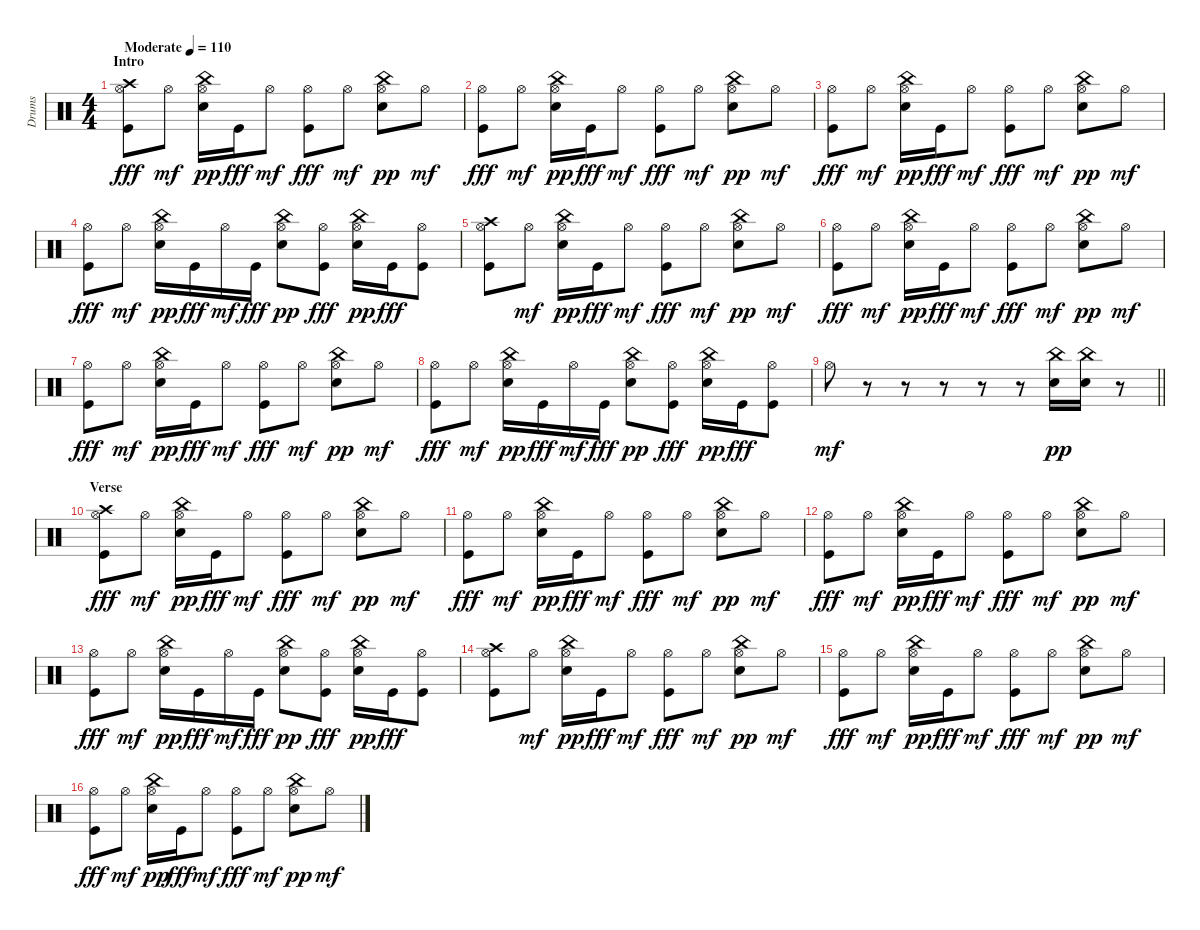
\track ("Drums" "Drums") {instrument percussion}
\staff {score}
\articulation defaults
\ts (4 4)
\section ("" "Intro")
\tempo (110 "Moderate")
\clef neutral
\ks c
("Crash high (hit)" "Hi-Hat (open)" "Kick (hit)").8{dy fff} "Hi-Hat (open)".8{dy mf} ("Hi-Hat (open)" "China (hit)" "Electric Snare (hit)").16{dy pp} "Kick (hit)".16{dy fff} "Hi-Hat (open)".8{dy mf} ("Hi-Hat (open)" "Kick (hit)").8{dy fff} "Hi-Hat (open)".8{dy mf} ("Hi-Hat (open)" "China (hit)" "Electric Snare (hit)").8{dy pp} "Hi-Hat (open)".8{dy mf} |
("Hi-Hat (open)" "Kick (hit)").8{dy fff} "Hi-Hat (open)".8{dy mf} ("Hi-Hat (open)" "China (hit)" "Electric Snare (hit)").16{dy pp} "Kick (hit)".16{dy fff} "Hi-Hat (open)".8{dy mf} ("Hi-Hat (open)" "Kick (hit)").8{dy fff} "Hi-Hat (open)".8{dy mf} ("Hi-Hat (open)" "China (hit)" "Electric Snare (hit)").8{dy pp} "Hi-Hat (open)".8{dy mf} |
("Hi-Hat (open)" "Kick (hit)").8{dy fff} "Hi-Hat (open)".8{dy mf} ("Hi-Hat (open)" "China (hit)" "Electric Snare (hit)").16{dy pp} "Kick (hit)".16{dy fff} "Hi-Hat (open)".8{dy mf} ("Hi-Hat (open)" "Kick (hit)").8{dy fff} "Hi-Hat (open)".8{dy mf} ("Hi-Hat (open)" "China (hit)" "Electric Snare (hit)").8{dy pp} "Hi-Hat (open)".8{dy mf} |
("Hi-Hat (open)" "Kick (hit)").8{dy fff} "Hi-Hat (open)".8{dy mf} ("Hi-Hat (open)" "China (hit)" "Electric Snare (hit)").16{dy pp} "Kick (hit)".16{dy fff} "Hi-Hat (open)".16{dy mf} "Kick (hit)".16{dy fff} ("Hi-Hat (open)" "China (hit)" "Electric Snare (hit)").8{dy pp} ("Hi-Hat (open)" "Kick (hit)").8{dy fff} ("Hi-Hat (open)" "China (hit)" "Electric Snare (hit)").16{dy pp} "Kick (hit)".16{dy fff} ("Hi-Hat (open)" "Kick (hit)").8 |
("Crash high (hit)" "Hi-Hat (open)" "Kick (hit)").8 "Hi-Hat (open)".8{dy mf} ("Hi-Hat (open)" "China (hit)" "Electric Snare (hit)").16{dy pp} "Kick (hit)".16{dy fff} "Hi-Hat (open)".8{dy mf} ("Hi-Hat (open)" "Kick (hit)").8{dy fff} "Hi-Hat (open)".8{dy mf} ("Hi-Hat (open)" "China (hit)" "Electric Snare (hit)").8{dy pp} "Hi-Hat (open)".8{dy mf} |
("Hi-Hat (open)" "Kick (hit)").8{dy fff} "Hi-Hat (open)".8{dy mf} ("Hi-Hat (open)" "China (hit)" "Electric Snare (hit)").16{dy pp} "Kick (hit)".16{dy fff} "Hi-Hat (open)".8{dy mf} ("Hi-Hat (open)" "Kick (hit)").8{dy fff} "Hi-Hat (open)".8{dy mf} ("Hi-Hat (open)" "China (hit)" "Electric Snare (hit)").8{dy pp} "Hi-Hat (open)".8{dy mf} |
("Hi-Hat (open)" "Kick (hit)").8{dy fff} "Hi-Hat (open)".8{dy mf} ("Hi-Hat (open)" "China (hit)" "Electric Snare (hit)").16{dy pp} "Kick (hit)".16{dy fff} "Hi-Hat (open)".8{dy mf} ("Hi-Hat (open)" "Kick (hit)").8{dy fff} "Hi-Hat (open)".8{dy mf} ("Hi-Hat (open)" "China (hit)" "Electric Snare (hit)").8{dy pp} "Hi-Hat (open)".8{dy mf} |
("Hi-Hat (open)" "Kick (hit)").8{dy fff} "Hi-Hat (open)".8{dy mf} ("Hi-Hat (open)" "China (hit)" "Electric Snare (hit)").16{dy pp} "Kick (hit)".16{dy fff} "Hi-Hat (open)".16{dy mf} "Kick (hit)".16{dy fff} ("Hi-Hat (open)" "China (hit)" "Electric Snare (hit)").8{dy pp} ("Hi-Hat (open)" "Kick (hit)").8{dy fff} ("Hi-Hat (open)" "China (hit)" "Electric Snare (hit)").16{dy pp} "Kick (hit)".16{dy fff} ("Hi-Hat (open)" "Kick (hit)").8 |
\barLineRight lightlight "Hi-Hat (open)".8{dy mf}
r.8 r.8 r.8 r.8 r.8 ("China (hit)" "Electric Snare (hit)").16{dy pp} ("China (hit)" "Electric Snare (hit)").16 r.8 |
\section ("" "Verse")
("Crash high (hit)" "Hi-Hat (open)" "Kick (hit)").8{dy fff} "Hi-Hat (open)".8{dy mf} ("Hi-Hat (open)" "China (hit)" "Electric Snare (hit)").16{dy pp} "Kick (hit)".16{dy fff} "Hi-Hat (open)".8{dy mf} ("Hi-Hat (open)" "Kick (hit)").8{dy fff} "Hi-Hat (open)".8{dy mf} ("Hi-Hat (open)" "China (hit)" "Electric Snare (hit)").8{dy pp} "Hi-Hat (open)".8{dy mf} |
("Hi-Hat (open)" "Kick (hit)").8{dy fff} "Hi-Hat (open)".8{dy mf} ("Hi-Hat (open)" "China (hit)" "Electric Snare (hit)").16{dy pp} "Kick (hit)".16{dy fff} "Hi-Hat (open)".8{dy mf} ("Hi-Hat (open)" "Kick (hit)").8{dy fff} "Hi-Hat (open)".8{dy mf} ("Hi-Hat (open)" "China (hit)" "Electric Snare (hit)").8{dy pp} "Hi-Hat (open)".8{dy mf} |
("Hi-Hat (open)" "Kick (hit)").8{dy fff} "Hi-Hat (open)".8{dy mf} ("Hi-Hat (open)" "China (hit)" "Electric Snare (hit)").16{dy pp} "Kick (hit)".16{dy fff} "Hi-Hat (open)".8{dy mf} ("Hi-Hat (open)" "Kick (hit)").8{dy fff} "Hi-Hat (open)".8{dy mf} ("Hi-Hat (open)" "China (hit)" "Electric Snare (hit)").8{dy pp} "Hi-Hat (open)".8{dy mf} |
("Hi-Hat (open)" "Kick (hit)").8{dy fff} "Hi-Hat (open)".8{dy mf} ("Hi-Hat (open)" "China (hit)" "Electric Snare (hit)").16{dy pp} "Kick (hit)".16{dy fff} "Hi-Hat (open)".16{dy mf} "Kick (hit)".16{dy fff} ("Hi-Hat (open)" "China (hit)" "Electric Snare (hit)").8{dy pp} ("Hi-Hat (open)" "Kick (hit)").8{dy fff} ("Hi-Hat (open)" "China (hit)" "Electric Snare (hit)").16{dy pp} "Kick (hit)".16{dy fff} ("Hi-Hat (open)" "Kick (hit)").8 |
("Crash high (hit)" "Hi-Hat (open)" "Kick (hit)").8 "Hi-Hat (open)".8{dy mf} ("Hi-Hat (open)" "China (hit)" "Electric Snare (hit)").16{dy pp} "Kick (hit)".16{dy fff} "Hi-Hat (open)".8{dy mf} ("Hi-Hat (open)" "Kick (hit)").8{dy fff} "Hi-Hat (open)".8{dy mf} ("Hi-Hat (open)" "China (hit)" "Electric Snare (hit)").8{dy pp} "Hi-Hat (open)".8{dy mf} |
("Hi-Hat (open)" "Kick (hit)").8{dy fff} "Hi-Hat (open)".8{dy mf} ("Hi-Hat (open)" "China (hit)" "Electric Snare (hit)").16{dy pp} "Kick (hit)".16{dy fff} "Hi-Hat (open)".8{dy mf} ("Hi-Hat (open)" "Kick (hit)").8{dy fff} "Hi-Hat (open)".8{dy mf} ("Hi-Hat (open)" "China (hit)" "Electric Snare (hit)").8{dy pp} "Hi-Hat (open)".8{dy mf} |
("Hi-Hat (open)" "Kick (hit)").8{dy fff} "Hi-Hat (open)".8{dy mf} ("Hi-Hat (open)" "China (hit)" "Electric Snare (hit)").16{dy pp} "Kick (hit)".16{dy fff} "Hi-Hat (open)".8{dy mf} ("Hi-Hat (open)" "Kick (hit)").8{dy fff} "Hi-Hat (open)".8{dy mf} ("Hi-Hat (open)" "China (hit)" "Electric Snare (hit)").8{dy pp} "Hi-Hat (open)".8{dy mf}
